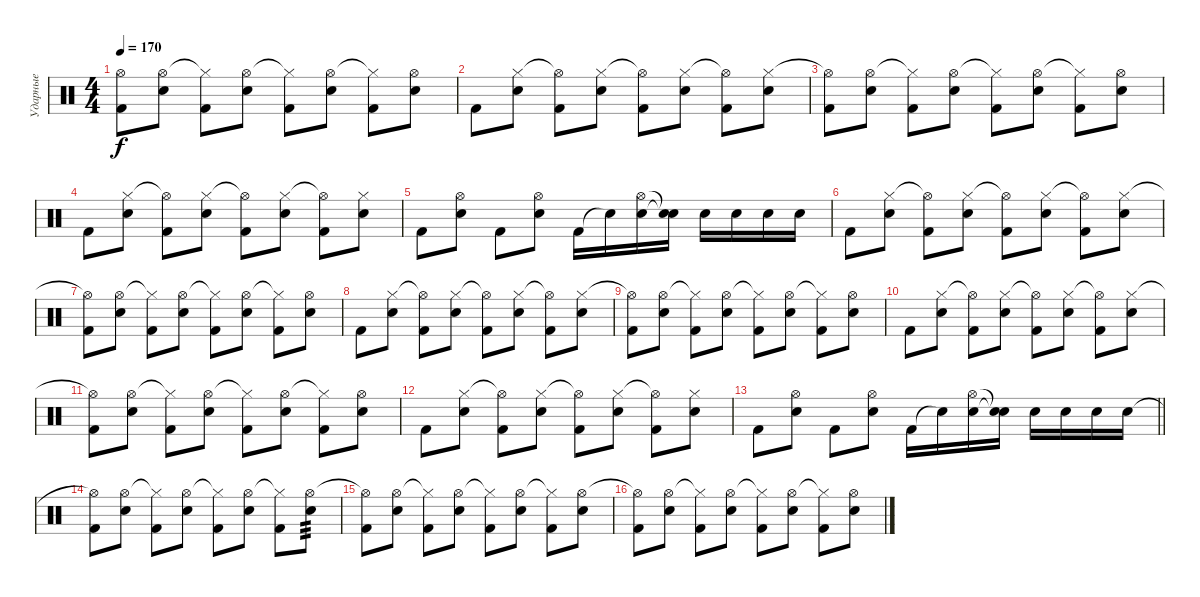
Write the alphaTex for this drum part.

\track ("Ударные" "Ударные") {instrument percussion}
\staff {score}
\articulation defaults
\ts (4 4)
\tempo 170
\clef neutral
\ks c
("Hi-Hat (open)"{t} "Kick (hit) 2").8{dy f} ("Hi-Hat (open)" "Electric Snare (hit)").8 ("Hi-Hat (closed)"{t} "Kick (hit) 2").8 ("Hi-Hat (open)" "Electric Snare (hit)").8 ("Hi-Hat (closed)"{t} "Kick (hit) 2").8 ("Hi-Hat (open)" "Electric Snare (hit)").8 ("Hi-Hat (closed)"{t} "Kick (hit) 2").8 ("Hi-Hat (open)" "Electric Snare (hit)").8 |
"Kick (hit) 2".8 ("Hi-Hat (closed)" "Electric Snare (hit)").8 ("Hi-Hat (open)"{t} "Kick (hit) 2").8 ("Hi-Hat (closed)" "Electric Snare (hit)").8 ("Hi-Hat (open)"{t} "Kick (hit) 2").8 ("Hi-Hat (closed)" "Electric Snare (hit)").8 ("Hi-Hat (open)"{t} "Kick (hit) 2").8 ("Hi-Hat (closed)" "Electric Snare (hit)").8 |
("Hi-Hat (open)"{t} "Kick (hit) 2").8 ("Hi-Hat (open)" "Electric Snare (hit)").8 ("Hi-Hat (closed)"{t} "Kick (hit) 2").8 ("Hi-Hat (open)" "Electric Snare (hit)").8 ("Hi-Hat (closed)"{t} "Kick (hit) 2").8 ("Hi-Hat (open)" "Electric Snare (hit)").8 ("Hi-Hat (closed)"{t} "Kick (hit) 2").8 ("Hi-Hat (open)" "Electric Snare (hit)").8 |
"Kick (hit) 2".8 ("Hi-Hat (closed)" "Electric Snare (hit)").8 ("Hi-Hat (open)"{t} "Kick (hit) 2").8 ("Hi-Hat (closed)" "Electric Snare (hit)").8 ("Hi-Hat (open)"{t} "Kick (hit) 2").8 ("Hi-Hat (closed)" "Electric Snare (hit)").8 ("Hi-Hat (open)"{t} "Kick (hit) 2").8 ("Hi-Hat (closed)" "Electric Snare (hit)").8 |
"Kick (hit) 2".8 ("Hi-Hat (open)" "Electric Snare (hit)").8 "Kick (hit) 2".8 ("Hi-Hat (open)" "Electric Snare (hit)").8 "Kick (hit) 2".16 "Electric Snare (hit)"{t}.16 ("Electric Snare (hit)" "Hi-Hat (open)").16 ("Electric Snare (hit)"{t} "Snare (hit)"{t}).16 "Electric Snare (hit)".16 "Electric Snare (hit)".16 "Electric Snare (hit)".16 "Electric Snare (hit)".16 |
"Kick (hit) 2".8 ("Hi-Hat (closed)" "Electric Snare (hit)").8 ("Hi-Hat (open)"{t} "Kick (hit) 2").8 ("Hi-Hat (closed)" "Electric Snare (hit)").8 ("Hi-Hat (open)"{t} "Kick (hit) 2").8 ("Hi-Hat (closed)" "Electric Snare (hit)").8 ("Hi-Hat (open)"{t} "Kick (hit) 2").8 ("Hi-Hat (closed)" "Electric Snare (hit)").8 |
("Hi-Hat (open)"{t} "Kick (hit) 2").8 ("Hi-Hat (open)" "Electric Snare (hit)").8 ("Hi-Hat (closed)"{t} "Kick (hit) 2").8 ("Hi-Hat (open)" "Electric Snare (hit)").8 ("Hi-Hat (closed)"{t} "Kick (hit) 2").8 ("Hi-Hat (open)" "Electric Snare (hit)").8 ("Hi-Hat (closed)"{t} "Kick (hit) 2").8 ("Hi-Hat (open)" "Electric Snare (hit)").8 |
"Kick (hit) 2".8 ("Hi-Hat (closed)" "Electric Snare (hit)").8 ("Hi-Hat (open)"{t} "Kick (hit) 2").8 ("Hi-Hat (closed)" "Electric Snare (hit)").8 ("Hi-Hat (open)"{t} "Kick (hit) 2").8 ("Hi-Hat (closed)" "Electric Snare (hit)").8 ("Hi-Hat (open)"{t} "Kick (hit) 2").8 ("Hi-Hat (closed)" "Electric Snare (hit)").8 |
("Hi-Hat (open)"{t} "Kick (hit) 2").8 ("Hi-Hat (open)" "Electric Snare (hit)").8 ("Hi-Hat (closed)"{t} "Kick (hit) 2").8 ("Hi-Hat (open)" "Electric Snare (hit)").8 ("Hi-Hat (closed)"{t} "Kick (hit) 2").8 ("Hi-Hat (open)" "Electric Snare (hit)").8 ("Hi-Hat (closed)"{t} "Kick (hit) 2").8 ("Hi-Hat (open)" "Electric Snare (hit)").8 |
"Kick (hit) 2".8 ("Hi-Hat (closed)" "Electric Snare (hit)").8 ("Hi-Hat (open)"{t} "Kick (hit) 2").8 ("Hi-Hat (closed)" "Electric Snare (hit)").8 ("Hi-Hat (open)"{t} "Kick (hit) 2").8 ("Hi-Hat (closed)" "Electric Snare (hit)").8 ("Hi-Hat (open)"{t} "Kick (hit) 2").8 ("Hi-Hat (closed)" "Electric Snare (hit)").8 |
("Hi-Hat (open)"{t} "Kick (hit) 2").8 ("Hi-Hat (open)" "Electric Snare (hit)").8 ("Hi-Hat (closed)"{t} "Kick (hit) 2").8 ("Hi-Hat (open)" "Electric Snare (hit)").8 ("Hi-Hat (closed)"{t} "Kick (hit) 2").8 ("Hi-Hat (open)" "Electric Snare (hit)").8 ("Hi-Hat (closed)"{t} "Kick (hit) 2").8 ("Hi-Hat (open)" "Electric Snare (hit)").8 |
"Kick (hit) 2".8 ("Hi-Hat (closed)" "Electric Snare (hit)").8 ("Hi-Hat (open)"{t} "Kick (hit) 2").8 ("Hi-Hat (closed)" "Electric Snare (hit)").8 ("Hi-Hat (open)"{t} "Kick (hit) 2").8 ("Hi-Hat (closed)" "Electric Snare (hit)").8 ("Hi-Hat (open)"{t} "Kick (hit) 2").8 ("Hi-Hat (closed)" "Electric Snare (hit)").8 |
\barLineRight lightlight "Kick (hit) 2".8
("Hi-Hat (open)" "Electric Snare (hit)").8 "Kick (hit) 2".8 ("Hi-Hat (open)" "Electric Snare (hit)").8 "Kick (hit) 2".16 "Electric Snare (hit)"{t}.16 ("Electric Snare (hit)" "Hi-Hat (open)").16 ("Electric Snare (hit)"{t} "Snare (hit)"{t}).16 "Electric Snare (hit)".16 "Electric Snare (hit)".16 "Electric Snare (hit)".16 "Electric Snare (hit)".16 |
("Hi-Hat (open)"{t} "Kick (hit) 2").8 ("Hi-Hat (open)" "Electric Snare (hit)").8 ("Hi-Hat (closed)"{t} "Kick (hit) 2").8 ("Hi-Hat (open)" "Electric Snare (hit)").8 ("Hi-Hat (closed)"{t} "Kick (hit) 2").8 ("Hi-Hat (open)" "Electric Snare (hit)").8 ("Hi-Hat (closed)"{t} "Kick (hit) 2").8 ("Hi-Hat (open)" "Electric Snare (hit)").8{tp 3} |
("Hi-Hat (open)"{t} "Kick (hit) 2").8 ("Hi-Hat (open)" "Electric Snare (hit)").8 ("Hi-Hat (closed)"{t} "Kick (hit) 2").8 ("Hi-Hat (open)" "Electric Snare (hit)").8 ("Hi-Hat (closed)"{t} "Kick (hit) 2").8 ("Hi-Hat (open)" "Electric Snare (hit)").8 ("Hi-Hat (closed)"{t} "Kick (hit) 2").8 ("Hi-Hat (open)" "Electric Snare (hit)").8 |
("Hi-Hat (open)"{t} "Kick (hit) 2").8 ("Hi-Hat (open)" "Electric Snare (hit)").8 ("Hi-Hat (closed)"{t} "Kick (hit) 2").8 ("Hi-Hat (open)" "Electric Snare (hit)").8 ("Hi-Hat (closed)"{t} "Kick (hit) 2").8 ("Hi-Hat (open)" "Electric Snare (hit)").8 ("Hi-Hat (closed)"{t} "Kick (hit) 2").8 ("Hi-Hat (open)" "Electric Snare (hit)").8
